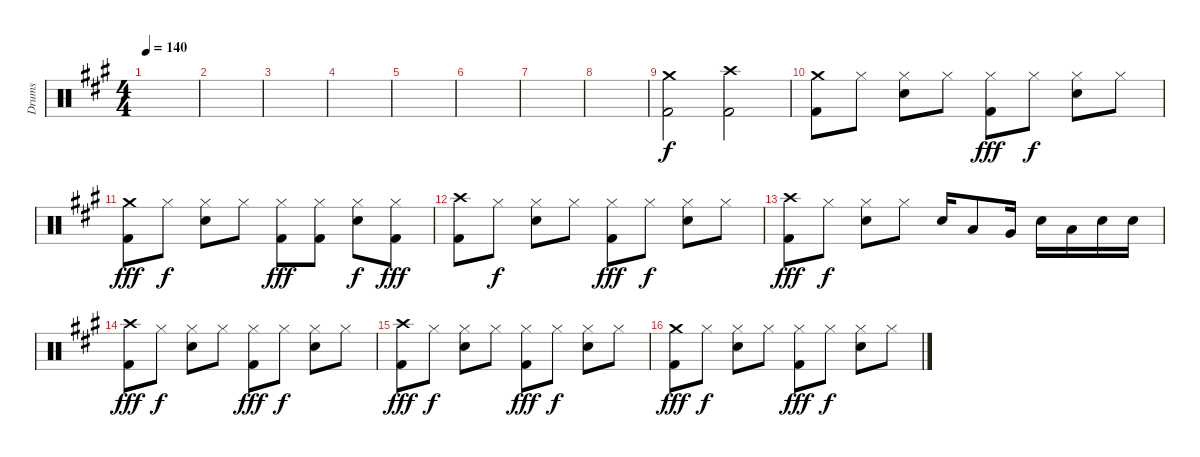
\track ("Drums" "Drums") {instrument percussion}
\staff {score}
\articulation defaults
\ts (4 4)
\tempo 140
\clef neutral
\ks a
|
|
|
|
|
|
|
|
("Crash medium (hit)" "Kick (hit) 2").2 ("Crash high (hit)" "Kick (hit) 2").2 |
("Crash medium (hit)" "Kick (hit) 2").8 "Hi-Hat (closed)".8{dy f} ("Hi-Hat (closed)" "Electric Snare (hit)").8 "Hi-Hat (closed)".8 ("Hi-Hat (closed)" "Kick (hit) 2").8{dy fff} "Hi-Hat (closed)".8{dy f} ("Hi-Hat (closed)" "Electric Snare (hit)").8 "Hi-Hat (closed)".8 |
("Crash medium (hit)" "Kick (hit) 2").8{dy fff} "Hi-Hat (closed)".8{dy f} ("Hi-Hat (closed)" "Electric Snare (hit)").8 "Hi-Hat (closed)".8 ("Hi-Hat (closed)" "Kick (hit) 2").8{dy fff} ("Hi-Hat (closed)" "Kick (hit) 2").8 ("Hi-Hat (closed)" "Electric Snare (hit)").8{dy f} ("Hi-Hat (closed)" "Kick (hit) 2").8{dy fff} |
("Crash high (hit)" "Kick (hit) 2").8 "Hi-Hat (closed)".8{dy f} ("Hi-Hat (closed)" "Electric Snare (hit)").8 "Hi-Hat (closed)".8 ("Hi-Hat (closed)" "Kick (hit) 2").8{dy fff} "Hi-Hat (closed)".8{dy f} ("Hi-Hat (closed)" "Electric Snare (hit)").8 "Hi-Hat (closed)".8 |
("Crash high (hit)" "Kick (hit) 2").8{dy fff} "Hi-Hat (closed)".8{dy f} ("Hi-Hat (closed)" "Electric Snare (hit)").8 "Hi-Hat (closed)".8 "Electric Snare (hit)".16 "Low Tom (hit)".8 "Very Low Tom (hit)".16 "Electric Snare (hit)".16 "Low Floor Tom (hit)".16 "Electric Snare (hit)".16 "Electric Snare (hit)".16 |
("Crash high (hit)" "Kick (hit) 2").8{dy fff} "Hi-Hat (closed)".8{dy f} ("Hi-Hat (closed)" "Electric Snare (hit)").8 "Hi-Hat (closed)".8 ("Hi-Hat (closed)" "Kick (hit) 2").8{dy fff} "Hi-Hat (closed)".8{dy f} ("Hi-Hat (closed)" "Electric Snare (hit)").8 "Hi-Hat (closed)".8 |
("Crash high (hit)" "Kick (hit) 2").8{dy fff} "Hi-Hat (closed)".8{dy f} ("Hi-Hat (closed)" "Electric Snare (hit)").8 "Hi-Hat (closed)".8 ("Hi-Hat (closed)" "Kick (hit) 2").8{dy fff} "Hi-Hat (closed)".8{dy f} ("Hi-Hat (closed)" "Electric Snare (hit)").8 "Hi-Hat (closed)".8 |
("Crash medium (hit)" "Kick (hit) 2").8{dy fff} "Hi-Hat (closed)".8{dy f} ("Hi-Hat (closed)" "Electric Snare (hit)").8 "Hi-Hat (closed)".8 ("Hi-Hat (closed)" "Kick (hit) 2").8{dy fff} "Hi-Hat (closed)".8{dy f} ("Hi-Hat (closed)" "Electric Snare (hit)").8 "Hi-Hat (closed)".8
